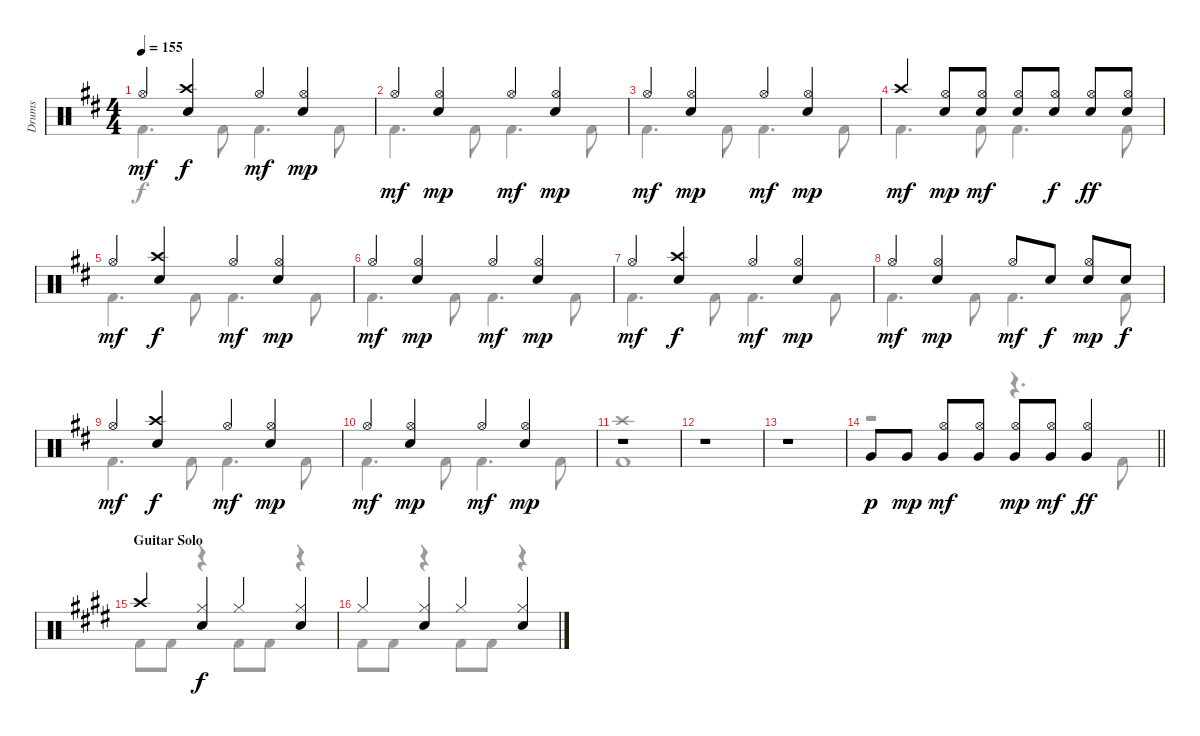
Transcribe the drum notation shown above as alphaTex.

\track ("Drums" "Drums") {instrument percussion}
\staff {score}
\articulation defaults
\voice
\ts (4 4)
\tempo 155
\clef neutral
\ks d "Hi-Hat (open)".4{dy mf}
("Crash high (hit)" "Electric Snare (hit)").4{dy f} "Hi-Hat (open)".4{dy mf} ("Hi-Hat (open)" "Electric Snare (hit)").4{dy mp} |
"Hi-Hat (open)".4{dy mf} ("Hi-Hat (open)" "Electric Snare (hit)").4{dy mp} "Hi-Hat (open)".4{dy mf} ("Hi-Hat (open)" "Electric Snare (hit)").4{dy mp} |
"Hi-Hat (open)".4{dy mf} ("Hi-Hat (open)" "Electric Snare (hit)").4{dy mp} "Hi-Hat (open)".4{dy mf} ("Hi-Hat (open)" "Electric Snare (hit)").4{dy mp} |
"Crash high (hit)".4{dy mf} ("Hi-Hat (open)" "Electric Snare (hit)").8{dy mp} ("Hi-Hat (open)" "Electric Snare (hit)").8{dy mf} ("Hi-Hat (open)" "Electric Snare (hit)").8 ("Hi-Hat (open)" "Electric Snare (hit)").8{dy f} ("Hi-Hat (open)" "Electric Snare (hit)").8{dy ff} ("Hi-Hat (open)" "Electric Snare (hit)").8 |
"Hi-Hat (open)".4{dy mf} ("Crash high (hit)" "Electric Snare (hit)").4{dy f} "Hi-Hat (open)".4{dy mf} ("Hi-Hat (open)" "Electric Snare (hit)").4{dy mp} |
"Hi-Hat (open)".4{dy mf} ("Hi-Hat (open)" "Electric Snare (hit)").4{dy mp} "Hi-Hat (open)".4{dy mf} ("Hi-Hat (open)" "Electric Snare (hit)").4{dy mp} |
"Hi-Hat (open)".4{dy mf} ("Crash high (hit)" "Electric Snare (hit)").4{dy f} "Hi-Hat (open)".4{dy mf} ("Hi-Hat (open)" "Electric Snare (hit)").4{dy mp} |
"Hi-Hat (open)".4{dy mf} ("Hi-Hat (open)" "Electric Snare (hit)").4{dy mp} "Hi-Hat (open)".8{dy mf} "Electric Snare (hit)".8{dy f} ("Hi-Hat (open)" "Electric Snare (hit)").8{dy mp} "Electric Snare (hit)".8{dy f} |
"Hi-Hat (open)".4{dy mf} ("Crash high (hit)" "Electric Snare (hit)").4{dy f} "Hi-Hat (open)".4{dy mf} ("Hi-Hat (open)" "Electric Snare (hit)").4{dy mp} |
"Hi-Hat (open)".4{dy mf} ("Hi-Hat (open)" "Electric Snare (hit)").4{dy mp} "Hi-Hat (open)".4{dy mf} ("Hi-Hat (open)" "Electric Snare (hit)").4{dy mp} |
r.1 |
r.1 |
r.1 |
\barLineRight lightlight "Very Low Tom (hit)".8{dy p} "Very Low Tom (hit)".8{dy mp}
("Hi-Hat (open)" "Very Low Tom (hit)").8{dy mf} ("Hi-Hat (open)" "Very Low Tom (hit)").8 ("Hi-Hat (open)" "Very Low Tom (hit)").8{dy mp} ("Hi-Hat (open)" "Very Low Tom (hit)").8{dy mf} ("Hi-Hat (open)" "Very Low Tom (hit)").4{dy ff} |
\section ("" "Guitar Solo")
\ks e "Crash high (hit)".4
("Hi-Hat (closed)" "Electric Snare (hit)").4{dy f} "Hi-Hat (closed)".4 ("Hi-Hat (closed)" "Electric Snare (hit)").4 |
"Hi-Hat (closed)".4 ("Hi-Hat (closed)" "Electric Snare (hit)").4 "Hi-Hat (closed)".4 ("Hi-Hat (closed)" "Electric Snare (hit)").4
\voice
\clef neutral
\ottava regular
\simile none
\ks d "Kick (hit) 2".4{d dy f} "Kick (hit) 2".8 "Kick (hit) 2".4{d} "Kick (hit) 2".8
|
"Kick (hit) 2".4{d} "Kick (hit) 2".8 "Kick (hit) 2".4{d} "Kick (hit) 2".8 |
"Kick (hit) 2".4{d} "Kick (hit) 2".8 "Kick (hit) 2".4{d} "Kick (hit) 2".8 |
"Kick (hit) 2".4{d} "Kick (hit) 2".8 "Kick (hit) 2".4{d} "Kick (hit) 2".8 |
"Kick (hit) 2".4{d} "Kick (hit) 2".8 "Kick (hit) 2".4{d} "Kick (hit) 2".8 |
"Kick (hit) 2".4{d} "Kick (hit) 2".8 "Kick (hit) 2".4{d} "Kick (hit) 2".8 |
"Kick (hit) 2".4{d} "Kick (hit) 2".8 "Kick (hit) 2".4{d} "Kick (hit) 2".8 |
"Kick (hit) 2".4{d} "Kick (hit) 2".8 "Kick (hit) 2".4{d} "Kick (hit) 2".8 |
"Kick (hit) 2".4{d} "Kick (hit) 2".8 "Kick (hit) 2".4{d} "Kick (hit) 2".8 |
"Kick (hit) 2".4{d} "Kick (hit) 2".8 "Kick (hit) 2".4{d} "Kick (hit) 2".8 |
("Crash high (hit)" "Kick (hit) 2").1 |
|
|
\barLineRight lightlight
r.2 r.4{d} "Kick (hit) 2".8 |
\ks e "Kick (hit) 2".8 "Kick (hit) 2".8
r.4 "Kick (hit) 2".8 "Kick (hit) 2".8 r.4 |
"Kick (hit) 2".8 "Kick (hit) 2".8 r.4 "Kick (hit) 2".8 "Kick (hit) 2".8 r.4
